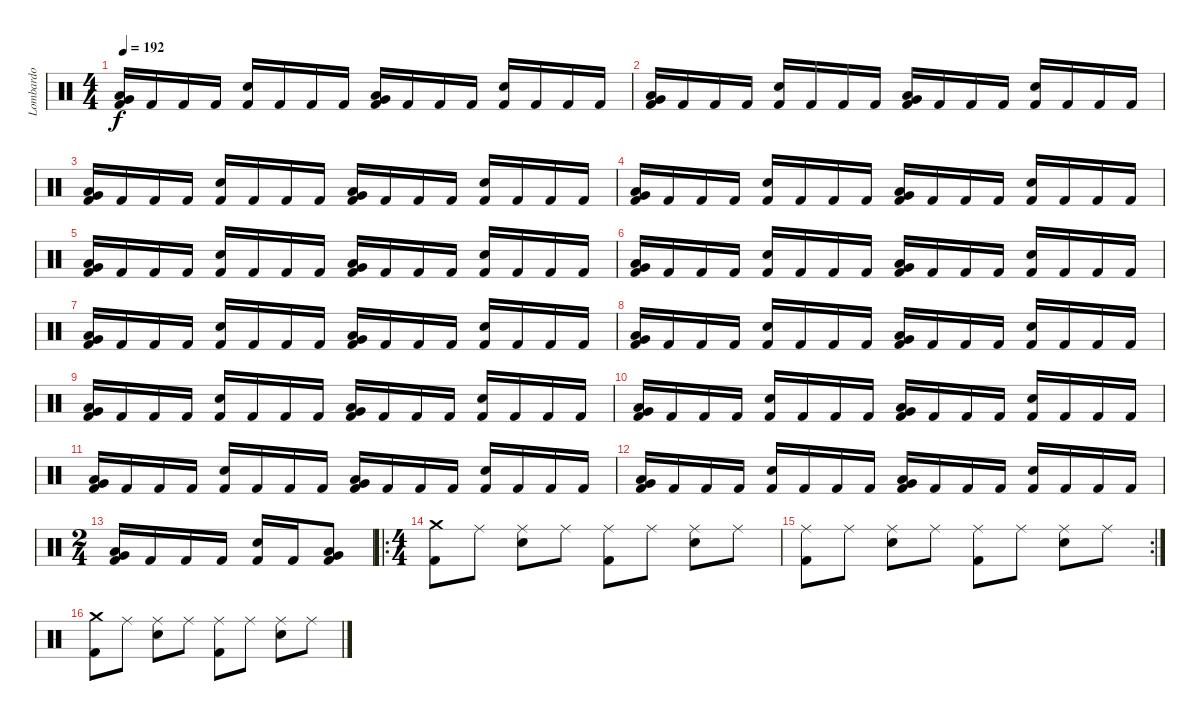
\track ("Lombardo" "Lombardo") {instrument percussion}
\staff {score}
\articulation defaults
\ts (4 4)
\tempo 192
\clef neutral
\ks c
("Very Low Tom (hit)" "Low Floor Tom (hit)" "Kick (hit) 2").16{dy f} "Kick (hit) 2".16 "Kick (hit) 2".16 "Kick (hit) 2".16 ("Snare (hit) 2" "Kick (hit) 2").16 "Kick (hit) 2".16 "Kick (hit) 2".16 "Kick (hit) 2".16 ("Very Low Tom (hit)" "Low Floor Tom (hit)" "Kick (hit) 2").16 "Kick (hit) 2".16 "Kick (hit) 2".16 "Kick (hit) 2".16 ("Snare (hit) 2" "Kick (hit) 2").16 "Kick (hit) 2".16 "Kick (hit) 2".16 "Kick (hit) 2".16 |
("Very Low Tom (hit)" "Low Floor Tom (hit)" "Kick (hit) 2").16 "Kick (hit) 2".16 "Kick (hit) 2".16 "Kick (hit) 2".16 ("Snare (hit) 2" "Kick (hit) 2").16 "Kick (hit) 2".16 "Kick (hit) 2".16 "Kick (hit) 2".16 ("Very Low Tom (hit)" "Low Floor Tom (hit)" "Kick (hit) 2").16 "Kick (hit) 2".16 "Kick (hit) 2".16 "Kick (hit) 2".16 ("Snare (hit) 2" "Kick (hit) 2").16 "Kick (hit) 2".16 "Kick (hit) 2".16 "Kick (hit) 2".16 |
("Very Low Tom (hit)" "Low Floor Tom (hit)" "Kick (hit) 2").16 "Kick (hit) 2".16 "Kick (hit) 2".16 "Kick (hit) 2".16 ("Snare (hit) 2" "Kick (hit) 2").16 "Kick (hit) 2".16 "Kick (hit) 2".16 "Kick (hit) 2".16 ("Very Low Tom (hit)" "Low Floor Tom (hit)" "Kick (hit) 2").16 "Kick (hit) 2".16 "Kick (hit) 2".16 "Kick (hit) 2".16 ("Snare (hit) 2" "Kick (hit) 2").16 "Kick (hit) 2".16 "Kick (hit) 2".16 "Kick (hit) 2".16 |
("Very Low Tom (hit)" "Low Floor Tom (hit)" "Kick (hit) 2").16 "Kick (hit) 2".16 "Kick (hit) 2".16 "Kick (hit) 2".16 ("Snare (hit) 2" "Kick (hit) 2").16 "Kick (hit) 2".16 "Kick (hit) 2".16 "Kick (hit) 2".16 ("Very Low Tom (hit)" "Low Floor Tom (hit)" "Kick (hit) 2").16 "Kick (hit) 2".16 "Kick (hit) 2".16 "Kick (hit) 2".16 ("Snare (hit) 2" "Kick (hit) 2").16 "Kick (hit) 2".16 "Kick (hit) 2".16 "Kick (hit) 2".16 |
("Very Low Tom (hit)" "Low Floor Tom (hit)" "Kick (hit) 2").16 "Kick (hit) 2".16 "Kick (hit) 2".16 "Kick (hit) 2".16 ("Snare (hit) 2" "Kick (hit) 2").16 "Kick (hit) 2".16 "Kick (hit) 2".16 "Kick (hit) 2".16 ("Very Low Tom (hit)" "Low Floor Tom (hit)" "Kick (hit) 2").16 "Kick (hit) 2".16 "Kick (hit) 2".16 "Kick (hit) 2".16 ("Snare (hit) 2" "Kick (hit) 2").16 "Kick (hit) 2".16 "Kick (hit) 2".16 "Kick (hit) 2".16 |
("Very Low Tom (hit)" "Low Floor Tom (hit)" "Kick (hit) 2").16 "Kick (hit) 2".16 "Kick (hit) 2".16 "Kick (hit) 2".16 ("Snare (hit) 2" "Kick (hit) 2").16 "Kick (hit) 2".16 "Kick (hit) 2".16 "Kick (hit) 2".16 ("Very Low Tom (hit)" "Low Floor Tom (hit)" "Kick (hit) 2").16 "Kick (hit) 2".16 "Kick (hit) 2".16 "Kick (hit) 2".16 ("Snare (hit) 2" "Kick (hit) 2").16 "Kick (hit) 2".16 "Kick (hit) 2".16 "Kick (hit) 2".16 |
("Very Low Tom (hit)" "Low Floor Tom (hit)" "Kick (hit) 2").16 "Kick (hit) 2".16 "Kick (hit) 2".16 "Kick (hit) 2".16 ("Snare (hit) 2" "Kick (hit) 2").16 "Kick (hit) 2".16 "Kick (hit) 2".16 "Kick (hit) 2".16 ("Very Low Tom (hit)" "Low Floor Tom (hit)" "Kick (hit) 2").16 "Kick (hit) 2".16 "Kick (hit) 2".16 "Kick (hit) 2".16 ("Snare (hit) 2" "Kick (hit) 2").16 "Kick (hit) 2".16 "Kick (hit) 2".16 "Kick (hit) 2".16 |
("Very Low Tom (hit)" "Low Floor Tom (hit)" "Kick (hit) 2").16 "Kick (hit) 2".16 "Kick (hit) 2".16 "Kick (hit) 2".16 ("Snare (hit) 2" "Kick (hit) 2").16 "Kick (hit) 2".16 "Kick (hit) 2".16 "Kick (hit) 2".16 ("Very Low Tom (hit)" "Low Floor Tom (hit)" "Kick (hit) 2").16 "Kick (hit) 2".16 "Kick (hit) 2".16 "Kick (hit) 2".16 ("Snare (hit) 2" "Kick (hit) 2").16 "Kick (hit) 2".16 "Kick (hit) 2".16 "Kick (hit) 2".16 |
("Very Low Tom (hit)" "Low Floor Tom (hit)" "Kick (hit) 2").16 "Kick (hit) 2".16 "Kick (hit) 2".16 "Kick (hit) 2".16 ("Snare (hit) 2" "Kick (hit) 2").16 "Kick (hit) 2".16 "Kick (hit) 2".16 "Kick (hit) 2".16 ("Very Low Tom (hit)" "Low Floor Tom (hit)" "Kick (hit) 2").16 "Kick (hit) 2".16 "Kick (hit) 2".16 "Kick (hit) 2".16 ("Snare (hit) 2" "Kick (hit) 2").16 "Kick (hit) 2".16 "Kick (hit) 2".16 "Kick (hit) 2".16 |
("Very Low Tom (hit)" "Low Floor Tom (hit)" "Kick (hit) 2").16 "Kick (hit) 2".16 "Kick (hit) 2".16 "Kick (hit) 2".16 ("Snare (hit) 2" "Kick (hit) 2").16 "Kick (hit) 2".16 "Kick (hit) 2".16 "Kick (hit) 2".16 ("Very Low Tom (hit)" "Low Floor Tom (hit)" "Kick (hit) 2").16 "Kick (hit) 2".16 "Kick (hit) 2".16 "Kick (hit) 2".16 ("Snare (hit) 2" "Kick (hit) 2").16 "Kick (hit) 2".16 "Kick (hit) 2".16 "Kick (hit) 2".16 |
("Very Low Tom (hit)" "Low Floor Tom (hit)" "Kick (hit) 2").16 "Kick (hit) 2".16 "Kick (hit) 2".16 "Kick (hit) 2".16 ("Snare (hit) 2" "Kick (hit) 2").16 "Kick (hit) 2".16 "Kick (hit) 2".16 "Kick (hit) 2".16 ("Very Low Tom (hit)" "Low Floor Tom (hit)" "Kick (hit) 2").16 "Kick (hit) 2".16 "Kick (hit) 2".16 "Kick (hit) 2".16 ("Snare (hit) 2" "Kick (hit) 2").16 "Kick (hit) 2".16 "Kick (hit) 2".16 "Kick (hit) 2".16 |
("Very Low Tom (hit)" "Low Floor Tom (hit)" "Kick (hit) 2").16 "Kick (hit) 2".16 "Kick (hit) 2".16 "Kick (hit) 2".16 ("Snare (hit) 2" "Kick (hit) 2").16 "Kick (hit) 2".16 "Kick (hit) 2".16 "Kick (hit) 2".16 ("Very Low Tom (hit)" "Low Floor Tom (hit)" "Kick (hit) 2").16 "Kick (hit) 2".16 "Kick (hit) 2".16 "Kick (hit) 2".16 ("Snare (hit) 2" "Kick (hit) 2").16 "Kick (hit) 2".16 "Kick (hit) 2".16 "Kick (hit) 2".16 |
\ts (2 4)
("Very Low Tom (hit)" "Low Floor Tom (hit)" "Kick (hit) 2").16 "Kick (hit) 2".16 "Kick (hit) 2".16 "Kick (hit) 2".16 ("Snare (hit) 2" "Kick (hit) 2").16 "Kick (hit) 2".16 ("Very Low Tom (hit)" "Low Floor Tom (hit)" "Kick (hit) 2").8 |
\ro
\ts (4 4)
("Crash medium (hit)" "Kick (hit) 2").8 "Ride (middle)".8 ("Ride (middle)" "Snare (hit) 2").8 "Ride (middle)".8 ("Ride (middle)" "Kick (hit) 2").8 "Ride (middle)".8 ("Ride (middle)" "Snare (hit) 2").8 "Ride (middle)".8 |
\rc 2
("Ride (middle)" "Kick (hit) 2").8 "Ride (middle)".8 ("Ride (middle)" "Snare (hit) 2").8 "Ride (middle)".8 ("Ride (middle)" "Kick (hit) 2").8 "Ride (middle)".8 ("Ride (middle)" "Snare (hit) 2").8 "Ride (middle)".8 |
("Crash medium (hit)" "Kick (hit) 2").8 "Ride (middle)".8 ("Ride (middle)" "Snare (hit) 2").8 "Ride (middle)".8 ("Ride (middle)" "Kick (hit) 2").8 "Ride (middle)".8 ("Ride (middle)" "Snare (hit) 2").8 "Ride (middle)".8
